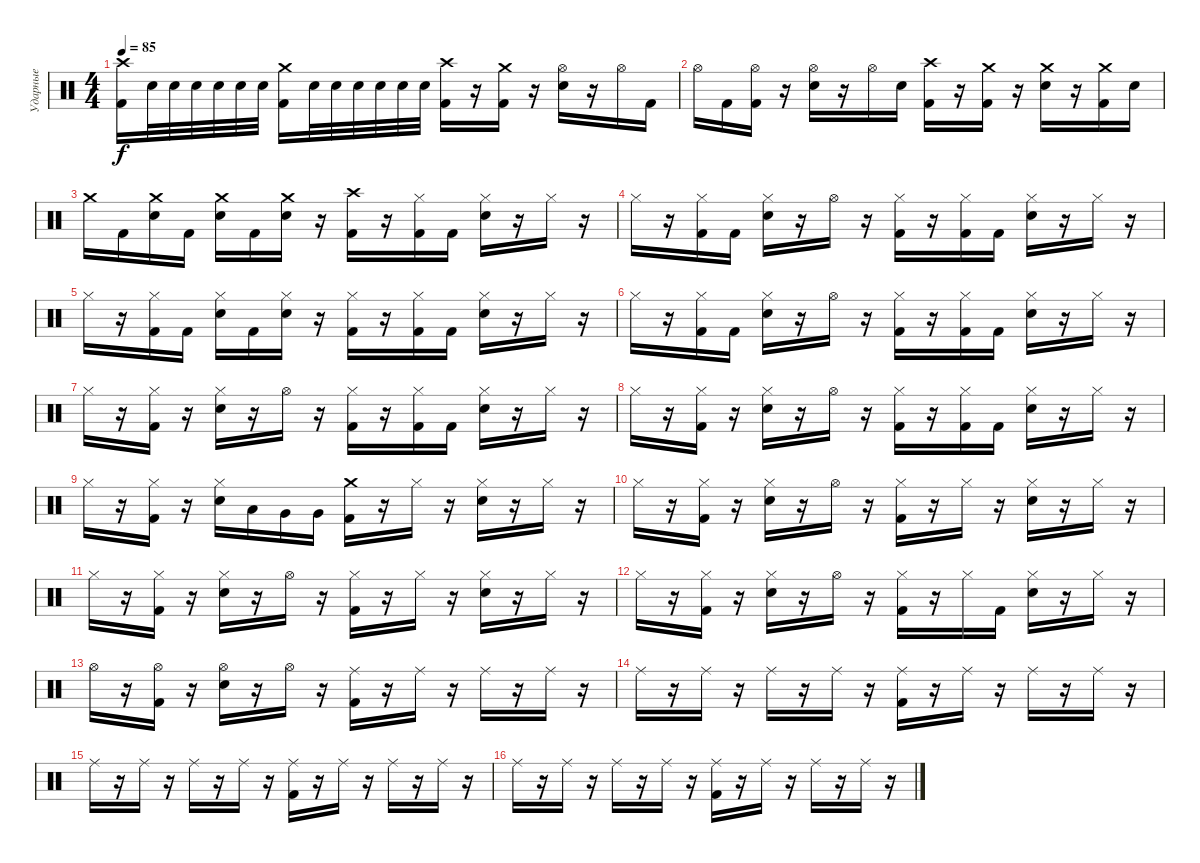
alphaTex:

\track ("Ударные" "Ударные") {instrument percussion}
\staff {score}
\articulation defaults
\ts (4 4)
\tempo 85
\clef neutral
\ks c
("Crash high (hit)" "Kick (hit) 2").16{dy f} "Electric Snare (hit)".32 "Electric Snare (hit)".32 "Electric Snare (hit)".32 "Electric Snare (hit)".32 "Electric Snare (hit)".32 "Electric Snare (hit)".32 ("Crash medium (hit)" "Kick (hit) 2").16 "Electric Snare (hit)".32 "Electric Snare (hit)".32 "Electric Snare (hit)".32 "Electric Snare (hit)".32 "Electric Snare (hit)".32 "Electric Snare (hit)".32 ("Crash high (hit)" "Kick (hit) 2").16 r.16 ("Crash medium (hit)" "Kick (hit) 2").16 r.16 ("Hi-Hat (open)" "Electric Snare (hit)").16 r.16 "Hi-Hat (open)".16 "Kick (hit) 2".16 |
"Hi-Hat (open)".16 "Kick (hit) 2".16 ("Hi-Hat (open)" "Kick (hit) 2").16 r.16 ("Hi-Hat (open)" "Electric Snare (hit)").16 r.16 "Hi-Hat (open)".16 "Electric Snare (hit)".16 ("Crash high (hit)" "Kick (hit) 2").16 r.16 ("Crash medium (hit)" "Kick (hit) 2").16 r.16 ("Crash medium (hit)" "Electric Snare (hit)").16 r.16 ("Crash medium (hit)" "Kick (hit) 2").16 "Electric Snare (hit)".16 |
"Crash medium (hit)".16 "Kick (hit) 2".16 ("Crash medium (hit)" "Electric Snare (hit)").16 "Kick (hit) 2".16 ("Crash medium (hit)" "Electric Snare (hit)").16 "Kick (hit) 2".16 ("Crash medium (hit)" "Electric Snare (hit)").16 r.16 ("Crash high (hit)" "Kick (hit) 2").16 r.16 ("Hi-Hat (closed)" "Kick (hit) 2").16 "Kick (hit) 2".16 ("Hi-Hat (closed)" "Electric Snare (hit)").16 r.16 "Hi-Hat (closed)".16 r.16 |
"Hi-Hat (closed)".16 r.16 ("Hi-Hat (closed)" "Kick (hit) 2").16 "Kick (hit) 2".16 ("Hi-Hat (closed)" "Electric Snare (hit)").16 r.16 "Hi-Hat (open)".16 r.16 ("Hi-Hat (closed)" "Kick (hit) 2").16 r.16 ("Hi-Hat (closed)" "Kick (hit) 2").16 "Kick (hit) 2".16 ("Hi-Hat (closed)" "Electric Snare (hit)").16 r.16 "Hi-Hat (closed)".16 r.16 |
"Hi-Hat (closed)".16 r.16 ("Hi-Hat (closed)" "Kick (hit) 2").16 "Kick (hit) 2".16 ("Hi-Hat (closed)" "Electric Snare (hit)").16 "Kick (hit) 2".16 ("Hi-Hat (closed)" "Electric Snare (hit)").16 r.16 ("Hi-Hat (closed)" "Kick (hit) 2").16 r.16 ("Hi-Hat (closed)" "Kick (hit) 2").16 "Kick (hit) 2".16 ("Hi-Hat (closed)" "Electric Snare (hit)").16 r.16 "Hi-Hat (closed)".16 r.16 |
"Hi-Hat (closed)".16 r.16 ("Hi-Hat (closed)" "Kick (hit) 2").16 "Kick (hit) 2".16 ("Hi-Hat (closed)" "Electric Snare (hit)").16 r.16 "Hi-Hat (open)".16 r.16 ("Hi-Hat (closed)" "Kick (hit) 2").16 r.16 ("Hi-Hat (closed)" "Kick (hit) 2").16 "Kick (hit) 2".16 ("Hi-Hat (closed)" "Electric Snare (hit)").16 r.16 "Hi-Hat (closed)".16 r.16 |
"Hi-Hat (closed)".16 r.16 ("Hi-Hat (closed)" "Kick (hit) 2").16 r.16 ("Hi-Hat (closed)" "Electric Snare (hit)").16 r.16 "Hi-Hat (open)".16 r.16 ("Hi-Hat (closed)" "Kick (hit) 2").16 r.16 ("Hi-Hat (closed)" "Kick (hit) 2").16 "Kick (hit) 2".16 ("Hi-Hat (closed)" "Electric Snare (hit)").16 r.16 "Hi-Hat (closed)".16 r.16 |
"Hi-Hat (closed)".16 r.16 ("Hi-Hat (closed)" "Kick (hit) 2").16 r.16 ("Hi-Hat (closed)" "Electric Snare (hit)").16 r.16 "Hi-Hat (open)".16 r.16 ("Hi-Hat (closed)" "Kick (hit) 2").16 r.16 ("Hi-Hat (closed)" "Kick (hit) 2").16 "Kick (hit) 2".16 ("Hi-Hat (closed)" "Electric Snare (hit)").16 r.16 "Hi-Hat (closed)".16 r.16 |
"Hi-Hat (closed)".16 r.16 ("Hi-Hat (closed)" "Kick (hit) 2").16 r.16 ("Hi-Hat (closed)" "Electric Snare (hit)").16 "Low Tom (hit)".16 "Very Low Tom (hit)".16 "Very Low Tom (hit)".16 ("Crash medium (hit)" "Kick (hit) 2").16 r.16 "Hi-Hat (closed)".16 r.16 ("Hi-Hat (closed)" "Electric Snare (hit)").16 r.16 "Hi-Hat (closed)".16 r.16 |
"Hi-Hat (closed)".16 r.16 ("Hi-Hat (closed)" "Kick (hit) 2").16 r.16 ("Hi-Hat (closed)" "Electric Snare (hit)").16 r.16 "Hi-Hat (open)".16 r.16 ("Hi-Hat (closed)" "Kick (hit) 2").16 r.16 "Hi-Hat (closed)".16 r.16 ("Hi-Hat (closed)" "Electric Snare (hit)").16 r.16 "Hi-Hat (closed)".16 r.16 |
"Hi-Hat (closed)".16 r.16 ("Hi-Hat (closed)" "Kick (hit) 2").16 r.16 ("Hi-Hat (closed)" "Electric Snare (hit)").16 r.16 "Hi-Hat (open)".16 r.16 ("Hi-Hat (closed)" "Kick (hit) 2").16 r.16 "Hi-Hat (closed)".16 r.16 ("Hi-Hat (closed)" "Electric Snare (hit)").16 r.16 "Hi-Hat (closed)".16 r.16 |
"Hi-Hat (closed)".16 r.16 ("Hi-Hat (closed)" "Kick (hit) 2").16 r.16 ("Hi-Hat (closed)" "Electric Snare (hit)").16 r.16 "Hi-Hat (open)".16 r.16 ("Hi-Hat (closed)" "Kick (hit) 2").16 r.16 "Hi-Hat (closed)".16 "Kick (hit) 2".16 ("Hi-Hat (closed)" "Electric Snare (hit)").16 r.16 "Hi-Hat (closed)".16 r.16 |
"Hi-Hat (open)".16 r.16 ("Hi-Hat (open)" "Kick (hit) 2").16 r.16 ("Hi-Hat (open)" "Electric Snare (hit)").16 r.16 "Hi-Hat (open)".16 r.16 ("Ride (middle)" "Kick (hit) 2").16 r.16 "Ride (middle)".16 r.16 "Ride (middle)".16 r.16 "Ride (middle)".16 r.16 |
"Ride (middle)".16 r.16 "Ride (middle)".16 r.16 "Ride (middle)".16 r.16 "Ride (middle)".16 r.16 ("Ride (middle)" "Kick (hit) 2").16 r.16 "Ride (middle)".16 r.16 "Ride (middle)".16 r.16 "Ride (middle)".16 r.16 |
"Ride (middle)".16 r.16 "Ride (middle)".16 r.16 "Ride (middle)".16 r.16 "Ride (middle)".16 r.16 ("Ride (middle)" "Kick (hit) 2").16 r.16 "Ride (middle)".16 r.16 "Ride (middle)".16 r.16 "Ride (middle)".16 r.16 |
"Ride (middle)".16 r.16 "Ride (middle)".16 r.16 "Ride (middle)".16 r.16 "Ride (middle)".16 r.16 ("Ride (middle)" "Kick (hit) 2").16 r.16 "Ride (middle)".16 r.16 "Ride (middle)".16 r.16 "Ride (middle)".16 r.16
